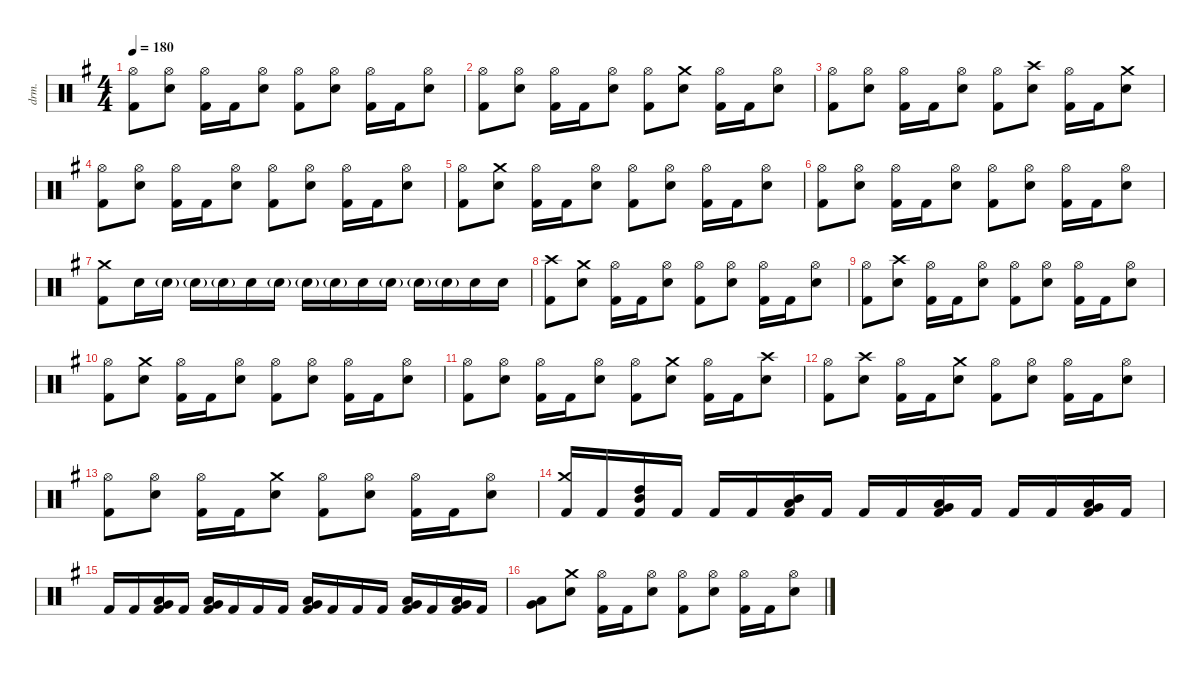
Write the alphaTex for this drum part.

\defaultSystemsLayout 4
\hideDynamics
\bracketExtendMode nobrackets
\otherSystemsTrackNameOrientation horizontal
\track ("Lars Ulrich" "drm.") {instrument percussion}
\staff {score}
\articulation defaults
\ts (4 4)
\tempo 180
\clef neutral
\ks eminor
("Hi-Hat (open)"{acc forcenatural} "Kick (hit) 2"{acc forcenatural}).8{dy f beam Down} ("Hi-Hat (open)"{acc forcenatural} "Snare (hit) 2"{acc forcenatural}).8{beam Down} ("Hi-Hat (open)"{acc forcenatural} "Kick (hit) 2"{acc forcenatural}).16{beam Down} "Kick (hit) 2"{acc forcenatural}.16{beam Down} ("Hi-Hat (open)"{acc forcenatural} "Snare (hit) 2"{acc forcenatural}).8{beam Down} ("Hi-Hat (open)"{acc forcenatural} "Kick (hit) 2"{acc forcenatural}).8{beam Down} ("Hi-Hat (open)"{acc forcenatural} "Snare (hit) 2"{acc forcenatural}).8{beam Down} ("Hi-Hat (open)"{acc forcenatural} "Kick (hit) 2"{acc forcenatural}).16{beam Down} "Kick (hit) 2"{acc forcenatural}.16{beam Down} ("Hi-Hat (open)"{acc forcenatural} "Snare (hit) 2"{acc forcenatural}).8{beam Down} |
("Hi-Hat (open)"{acc forcenatural} "Kick (hit) 2"{acc forcenatural}).8{beam Down} ("Hi-Hat (open)"{acc forcenatural} "Snare (hit) 2"{acc forcenatural}).8{beam Down} ("Hi-Hat (open)"{acc forcenatural} "Kick (hit) 2"{acc forcenatural}).16{beam Down} "Kick (hit) 2"{acc forcenatural}.16{beam Down} ("Hi-Hat (open)"{acc forcenatural} "Snare (hit) 2"{acc forcenatural}).8{beam Down} ("Hi-Hat (open)"{acc forcenatural} "Kick (hit) 2"{acc forcenatural}).8{beam Down} ("Crash medium (hit)"{acc forcenatural} "Snare (hit) 2"{acc forcenatural}).8{beam Down} ("Hi-Hat (open)"{acc forcenatural} "Kick (hit) 2"{acc forcenatural}).16{beam Down} "Kick (hit) 2"{acc forcenatural}.16{beam Down} ("Hi-Hat (open)"{acc forcenatural} "Snare (hit) 2"{acc forcenatural}).8{beam Down} |
("Hi-Hat (open)"{acc forcenatural} "Kick (hit) 2"{acc forcenatural}).8{beam Down} ("Hi-Hat (open)"{acc forcenatural} "Snare (hit) 2"{acc forcenatural}).8{beam Down} ("Hi-Hat (open)"{acc forcenatural} "Kick (hit) 2"{acc forcenatural}).16{beam Down} "Kick (hit) 2"{acc forcenatural}.16{beam Down} ("Hi-Hat (open)"{acc forcenatural} "Snare (hit) 2"{acc forcenatural}).8{beam Down} ("Hi-Hat (open)"{acc forcenatural} "Kick (hit) 2"{acc forcenatural}).8{beam Down} ("Crash high (hit)"{acc forcenatural} "Snare (hit) 2"{acc forcenatural}).8{beam Down} ("Hi-Hat (open)"{acc forcenatural} "Kick (hit) 2"{acc forcenatural}).16{beam Down} "Kick (hit) 2"{acc forcenatural}.16{beam Down} ("Crash medium (hit)"{acc forcenatural} "Snare (hit) 2"{acc forcenatural}).8{beam Down} |
("Hi-Hat (open)"{acc forcenatural} "Kick (hit) 2"{acc forcenatural}).8{beam Down} ("Hi-Hat (open)"{acc forcenatural} "Snare (hit) 2"{acc forcenatural}).8{beam Down} ("Hi-Hat (open)"{acc forcenatural} "Kick (hit) 2"{acc forcenatural}).16{beam Down} "Kick (hit) 2"{acc forcenatural}.16{beam Down} ("Hi-Hat (open)"{acc forcenatural} "Snare (hit) 2"{acc forcenatural}).8{beam Down} ("Hi-Hat (open)"{acc forcenatural} "Kick (hit) 2"{acc forcenatural}).8{beam Down} ("Hi-Hat (open)"{acc forcenatural} "Snare (hit) 2"{acc forcenatural}).8{beam Down} ("Hi-Hat (open)"{acc forcenatural} "Kick (hit) 2"{acc forcenatural}).16{beam Down} "Kick (hit) 2"{acc forcenatural}.16{beam Down} ("Hi-Hat (open)"{acc forcenatural} "Snare (hit) 2"{acc forcenatural}).8{beam Down} |
("Hi-Hat (open)"{acc forcenatural} "Kick (hit) 2"{acc forcenatural}).8{beam Down} ("Crash medium (hit)"{acc forcenatural} "Snare (hit) 2"{acc forcenatural}).8{beam Down} ("Hi-Hat (open)"{acc forcenatural} "Kick (hit) 2"{acc forcenatural}).16{beam Down} "Kick (hit) 2"{acc forcenatural}.16{beam Down} ("Hi-Hat (open)"{acc forcenatural} "Snare (hit) 2"{acc forcenatural}).8{beam Down} ("Hi-Hat (open)"{acc forcenatural} "Kick (hit) 2"{acc forcenatural}).8{beam Down} ("Hi-Hat (open)"{acc forcenatural} "Snare (hit) 2"{acc forcenatural}).8{beam Down} ("Hi-Hat (open)"{acc forcenatural} "Kick (hit) 2"{acc forcenatural}).16{beam Down} "Kick (hit) 2"{acc forcenatural}.16{beam Down} ("Hi-Hat (open)"{acc forcenatural} "Snare (hit) 2"{acc forcenatural}).8{beam Down} |
("Hi-Hat (open)"{acc forcenatural} "Kick (hit) 2"{acc forcenatural}).8{beam Down} ("Hi-Hat (open)"{acc forcenatural} "Snare (hit) 2"{acc forcenatural}).8{beam Down} ("Hi-Hat (open)"{acc forcenatural} "Kick (hit) 2"{acc forcenatural}).16{beam Down} "Kick (hit) 2"{acc forcenatural}.16{beam Down} ("Hi-Hat (open)"{acc forcenatural} "Snare (hit) 2"{acc forcenatural}).8{beam Down} ("Hi-Hat (open)"{acc forcenatural} "Kick (hit) 2"{acc forcenatural}).8{beam Down} ("Hi-Hat (open)"{acc forcenatural} "Snare (hit) 2"{acc forcenatural}).8{beam Down} ("Hi-Hat (open)"{acc forcenatural} "Kick (hit) 2"{acc forcenatural}).16{beam Down} "Kick (hit) 2"{acc forcenatural}.16{beam Down} ("Hi-Hat (open)"{acc forcenatural} "Snare (hit) 2"{acc forcenatural}).8{beam Down} |
("Crash medium (hit)"{acc forcenatural} "Kick (hit) 2"{acc forcenatural}).8{beam Down} "Snare (hit) 2"{acc forcenatural}.16{beam Down} "Snare (hit) 2"{g acc forcenatural}.16{dy ff beam Down} "Snare (hit) 2"{g acc forcenatural}.16{beam Down} "Snare (hit) 2"{g acc forcenatural}.16{beam Down} "Snare (hit) 2"{acc forcenatural}.16{dy f beam Down} "Snare (hit) 2"{g acc forcenatural}.16{dy ff beam Down} "Snare (hit) 2"{g acc forcenatural}.16{beam Down} "Snare (hit) 2"{g acc forcenatural}.16{beam Down} "Snare (hit) 2"{acc forcenatural}.16{dy f beam Down} "Snare (hit) 2"{g acc forcenatural}.16{dy ff beam Down} "Snare (hit) 2"{g acc forcenatural}.16{beam Down} "Snare (hit) 2"{g acc forcenatural}.16{beam Down} "Snare (hit) 2"{acc forcenatural}.16{dy f beam Down} "Snare (hit) 2"{acc forcenatural}.16{beam Down} |
("Crash high (hit)"{acc forcenatural} "Kick (hit) 2"{acc forcenatural}).8{beam Down} ("Crash medium (hit)"{acc forcenatural} "Snare (hit) 2"{acc forcenatural}).8{beam Down} ("Hi-Hat (open)"{acc forcenatural} "Kick (hit) 2"{acc forcenatural}).16{beam Down} "Kick (hit) 2"{acc forcenatural}.16{beam Down} ("Hi-Hat (open)"{acc forcenatural} "Snare (hit) 2"{acc forcenatural}).8{beam Down} ("Hi-Hat (open)"{acc forcenatural} "Kick (hit) 2"{acc forcenatural}).8{beam Down} ("Hi-Hat (open)"{acc forcenatural} "Snare (hit) 2"{acc forcenatural}).8{beam Down} ("Hi-Hat (open)"{acc forcenatural} "Kick (hit) 2"{acc forcenatural}).16{beam Down} "Kick (hit) 2"{acc forcenatural}.16{beam Down} ("Hi-Hat (open)"{acc forcenatural} "Snare (hit) 2"{acc forcenatural}).8{beam Down} |
("Hi-Hat (open)"{acc forcenatural} "Kick (hit) 2"{acc forcenatural}).8{beam Down} ("Crash high (hit)"{acc forcenatural} "Snare (hit) 2"{acc forcenatural}).8{beam Down} ("Hi-Hat (open)"{acc forcenatural} "Kick (hit) 2"{acc forcenatural}).16{beam Down} "Kick (hit) 2"{acc forcenatural}.16{beam Down} ("Hi-Hat (open)"{acc forcenatural} "Snare (hit) 2"{acc forcenatural}).8{beam Down} ("Hi-Hat (open)"{acc forcenatural} "Kick (hit) 2"{acc forcenatural}).8{beam Down} ("Hi-Hat (open)"{acc forcenatural} "Snare (hit) 2"{acc forcenatural}).8{beam Down} ("Hi-Hat (open)"{acc forcenatural} "Kick (hit) 2"{acc forcenatural}).16{beam Down} "Kick (hit) 2"{acc forcenatural}.16{beam Down} ("Hi-Hat (open)"{acc forcenatural} "Snare (hit) 2"{acc forcenatural}).8{beam Down} |
("Hi-Hat (open)"{acc forcenatural} "Kick (hit) 2"{acc forcenatural}).8{beam Down} ("Crash medium (hit)"{acc forcenatural} "Snare (hit) 2"{acc forcenatural}).8{beam Down} ("Hi-Hat (open)"{acc forcenatural} "Kick (hit) 2"{acc forcenatural}).16{beam Down} "Kick (hit) 2"{acc forcenatural}.16{beam Down} ("Hi-Hat (open)"{acc forcenatural} "Snare (hit) 2"{acc forcenatural}).8{beam Down} ("Hi-Hat (open)"{acc forcenatural} "Kick (hit) 2"{acc forcenatural}).8{beam Down} ("Hi-Hat (open)"{acc forcenatural} "Snare (hit) 2"{acc forcenatural}).8{beam Down} ("Hi-Hat (open)"{acc forcenatural} "Kick (hit) 2"{acc forcenatural}).16{beam Down} "Kick (hit) 2"{acc forcenatural}.16{beam Down} ("Hi-Hat (open)"{acc forcenatural} "Snare (hit) 2"{acc forcenatural}).8{beam Down} |
("Hi-Hat (open)"{acc forcenatural} "Kick (hit) 2"{acc forcenatural}).8{beam Down} ("Hi-Hat (open)"{acc forcenatural} "Snare (hit) 2"{acc forcenatural}).8{beam Down} ("Hi-Hat (open)"{acc forcenatural} "Kick (hit) 2"{acc forcenatural}).16{beam Down} "Kick (hit) 2"{acc forcenatural}.16{beam Down} ("Hi-Hat (open)"{acc forcenatural} "Snare (hit) 2"{acc forcenatural}).8{beam Down} ("Hi-Hat (open)"{acc forcenatural} "Kick (hit) 2"{acc forcenatural}).8{beam Down} ("Crash medium (hit)"{acc forcenatural} "Snare (hit) 2"{acc forcenatural}).8{beam Down} ("Hi-Hat (open)"{acc forcenatural} "Kick (hit) 2"{acc forcenatural}).16{beam Down} "Kick (hit) 2"{acc forcenatural}.16{beam Down} ("Crash high (hit)"{acc forcenatural} "Snare (hit) 2"{acc forcenatural}).8{beam Down} |
("Hi-Hat (open)"{acc forcenatural} "Kick (hit) 2"{acc forcenatural}).8{beam Down} ("Crash high (hit)"{acc forcenatural} "Snare (hit) 2"{acc forcenatural}).8{beam Down} ("Hi-Hat (open)"{acc forcenatural} "Kick (hit) 2"{acc forcenatural}).16{beam Down} "Kick (hit) 2"{acc forcenatural}.16{beam Down} ("Crash medium (hit)"{acc forcenatural} "Snare (hit) 2"{acc forcenatural}).8{beam Down} ("Hi-Hat (open)"{acc forcenatural} "Kick (hit) 2"{acc forcenatural}).8{beam Down} ("Hi-Hat (open)"{acc forcenatural} "Snare (hit) 2"{acc forcenatural}).8{beam Down} ("Hi-Hat (open)"{acc forcenatural} "Kick (hit) 2"{acc forcenatural}).16{beam Down} "Kick (hit) 2"{acc forcenatural}.16{beam Down} ("Hi-Hat (open)"{acc forcenatural} "Snare (hit) 2"{acc forcenatural}).8{beam Down} |
("Hi-Hat (open)"{acc forcenatural} "Kick (hit) 2"{acc forcenatural}).8{beam Down} ("Hi-Hat (open)"{acc forcenatural} "Snare (hit) 2"{acc forcenatural}).8{beam Down} ("Hi-Hat (open)"{acc forcenatural} "Kick (hit) 2"{acc forcenatural}).16{beam Down} "Kick (hit) 2"{acc forcenatural}.16{beam Down} ("Crash medium (hit)"{acc forcenatural} "Snare (hit) 2"{acc forcenatural}).8{beam Down} ("Hi-Hat (open)"{acc forcenatural} "Kick (hit) 2"{acc forcenatural}).8{beam Down} ("Hi-Hat (open)"{acc forcenatural} "Snare (hit) 2"{acc forcenatural}).8{beam Down} ("Hi-Hat (open)"{acc forcenatural} "Kick (hit) 2"{acc forcenatural}).16{beam Down} "Kick (hit) 2"{acc forcenatural}.16{beam Down} ("Hi-Hat (open)"{acc forcenatural} "Snare (hit) 2"{acc forcenatural}).8{beam Down} |
("Crash medium (hit)"{acc forcenatural} "Kick (hit) 2"{acc forcenatural}).16{beam Up} "Kick (hit) 2"{acc forcenatural}.16{beam Up} ("High Tom (hit)"{acc forcenatural} "Mid Tom (hit)"{acc forcenatural} "Kick (hit) 2"{acc forcenatural}).16{beam Up} "Kick (hit) 2"{acc forcenatural}.16{beam Up} "Kick (hit) 2"{acc forcenatural}.16{beam Up} "Kick (hit) 2"{acc forcenatural}.16{beam Up} ("Mid Tom (hit)"{acc forcenatural} "Low Tom (hit)"{acc forcenatural} "Kick (hit) 2"{acc forcenatural}).16{beam Up} "Kick (hit) 2"{acc forcenatural}.16{beam Up} "Kick (hit) 2"{acc forcenatural}.16{beam Up} "Kick (hit) 2"{acc forcenatural}.16{beam Up} ("Low Tom (hit)"{acc forcenatural} "Very Low Tom (hit)"{acc forcenatural} "Kick (hit) 2"{acc forcenatural}).16{beam Up} "Kick (hit) 2"{acc forcenatural}.16{beam Up} "Kick (hit) 2"{acc forcenatural}.16{beam Up} "Kick (hit) 2"{acc forcenatural}.16{beam Up} ("Very Low Tom (hit)"{acc forcenatural} "Low Floor Tom (hit)"{acc forcenatural} "Kick (hit) 2"{acc forcenatural}).16{beam Up} "Kick (hit) 2"{acc forcenatural}.16{beam Up} |
"Kick (hit) 2"{acc forcenatural}.16{beam Up} "Kick (hit) 2"{acc forcenatural}.16{beam Up} ("Very Low Tom (hit)"{acc forcenatural} "Low Floor Tom (hit)"{acc forcenatural} "Kick (hit) 2"{acc forcenatural}).16{beam Up} "Kick (hit) 2"{acc forcenatural}.16{beam Up} ("Very Low Tom (hit)"{acc forcenatural} "Low Floor Tom (hit)"{acc forcenatural} "Kick (hit) 2"{acc forcenatural}).16{beam Up} "Kick (hit) 2"{acc forcenatural}.16{beam Up} "Kick (hit) 2"{acc forcenatural}.16{beam Up} "Kick (hit) 2"{acc forcenatural}.16{beam Up} ("Very Low Tom (hit)"{acc forcenatural} "Low Floor Tom (hit)"{acc forcenatural} "Kick (hit) 2"{acc forcenatural}).16{beam Up} "Kick (hit) 2"{acc forcenatural}.16{beam Up} "Kick (hit) 2"{acc forcenatural}.16{beam Up} "Kick (hit) 2"{acc forcenatural}.16{beam Up} ("Very Low Tom (hit)"{acc forcenatural} "Low Floor Tom (hit)"{acc forcenatural} "Kick (hit) 2"{acc forcenatural}).16{beam Up} "Kick (hit) 2"{acc forcenatural}.16{beam Up} ("Very Low Tom (hit)"{acc forcenatural} "Low Floor Tom (hit)"{acc forcenatural} "Kick (hit) 2"{acc forcenatural}).16{beam Up} "Kick (hit) 2"{acc forcenatural}.16{beam Up} |
("Very Low Tom (hit)"{acc forcenatural} "Low Floor Tom (hit)"{acc forcenatural}).8{beam Down} ("Crash medium (hit)"{acc forcenatural} "Snare (hit) 2"{acc forcenatural}).8{beam Down} ("Hi-Hat (open)"{acc forcenatural} "Kick (hit) 2"{acc forcenatural}).16{beam Down} "Kick (hit) 2"{acc forcenatural}.16{beam Down} ("Hi-Hat (open)"{acc forcenatural} "Snare (hit) 2"{acc forcenatural}).8{beam Down} ("Hi-Hat (open)"{acc forcenatural} "Kick (hit) 2"{acc forcenatural}).8{beam Down} ("Hi-Hat (open)"{acc forcenatural} "Snare (hit) 2"{acc forcenatural}).8{beam Down} ("Hi-Hat (open)"{acc forcenatural} "Kick (hit) 2"{acc forcenatural}).16{beam Down} "Kick (hit) 2"{acc forcenatural}.16{beam Down} ("Hi-Hat (open)"{acc forcenatural} "Snare (hit) 2"{acc forcenatural}).8{beam Down}
